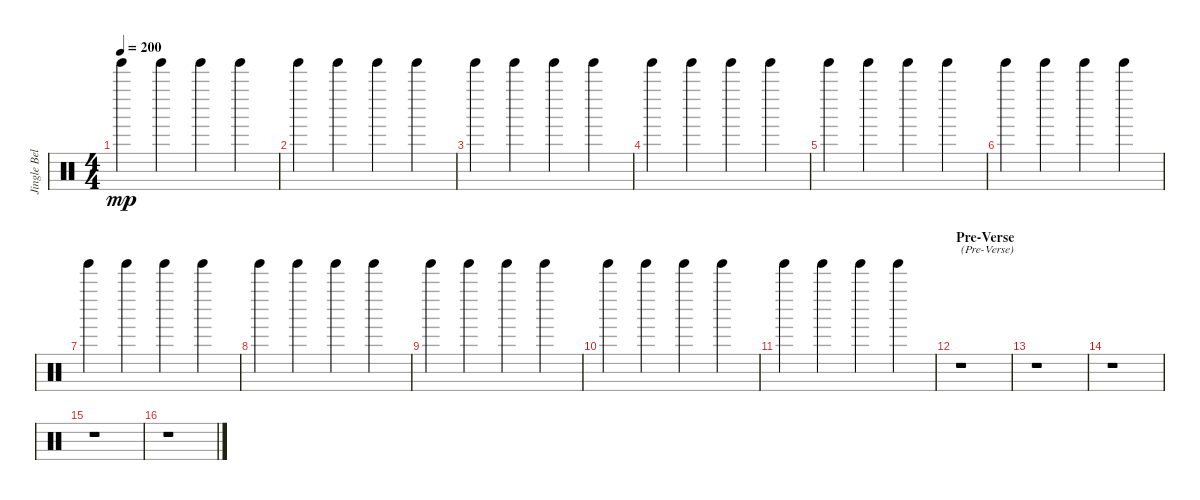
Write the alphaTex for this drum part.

\track ("Jingle Bells" "Jingle Bel") {instrument percussion}
\staff {score}
\articulation defaults
\ts (4 4)
\tempo 200
\clef neutral
\ks c "Tinkle Bell (hit)".4{dy mp} "Tinkle Bell (hit)".4 "Tinkle Bell (hit)".4 "Tinkle Bell (hit)".4
|
"Tinkle Bell (hit)".4 "Tinkle Bell (hit)".4 "Tinkle Bell (hit)".4 "Tinkle Bell (hit)".4 |
"Tinkle Bell (hit)".4 "Tinkle Bell (hit)".4 "Tinkle Bell (hit)".4 "Tinkle Bell (hit)".4 |
"Tinkle Bell (hit)".4 "Tinkle Bell (hit)".4 "Tinkle Bell (hit)".4 "Tinkle Bell (hit)".4 |
"Tinkle Bell (hit)".4 "Tinkle Bell (hit)".4 "Tinkle Bell (hit)".4 "Tinkle Bell (hit)".4 |
"Tinkle Bell (hit)".4 "Tinkle Bell (hit)".4 "Tinkle Bell (hit)".4 "Tinkle Bell (hit)".4 |
"Tinkle Bell (hit)".4 "Tinkle Bell (hit)".4 "Tinkle Bell (hit)".4 "Tinkle Bell (hit)".4 |
"Tinkle Bell (hit)".4 "Tinkle Bell (hit)".4 "Tinkle Bell (hit)".4 "Tinkle Bell (hit)".4 |
"Tinkle Bell (hit)".4 "Tinkle Bell (hit)".4 "Tinkle Bell (hit)".4 "Tinkle Bell (hit)".4 |
"Tinkle Bell (hit)".4 "Tinkle Bell (hit)".4 "Tinkle Bell (hit)".4 "Tinkle Bell (hit)".4 |
"Tinkle Bell (hit)".4 "Tinkle Bell (hit)".4 "Tinkle Bell (hit)".4 "Tinkle Bell (hit)".4 |
\section ("" "Pre-Verse")
r.1{txt "(Pre-Verse)"} |
r.1 |
r.1 |
r.1 |
r.1
